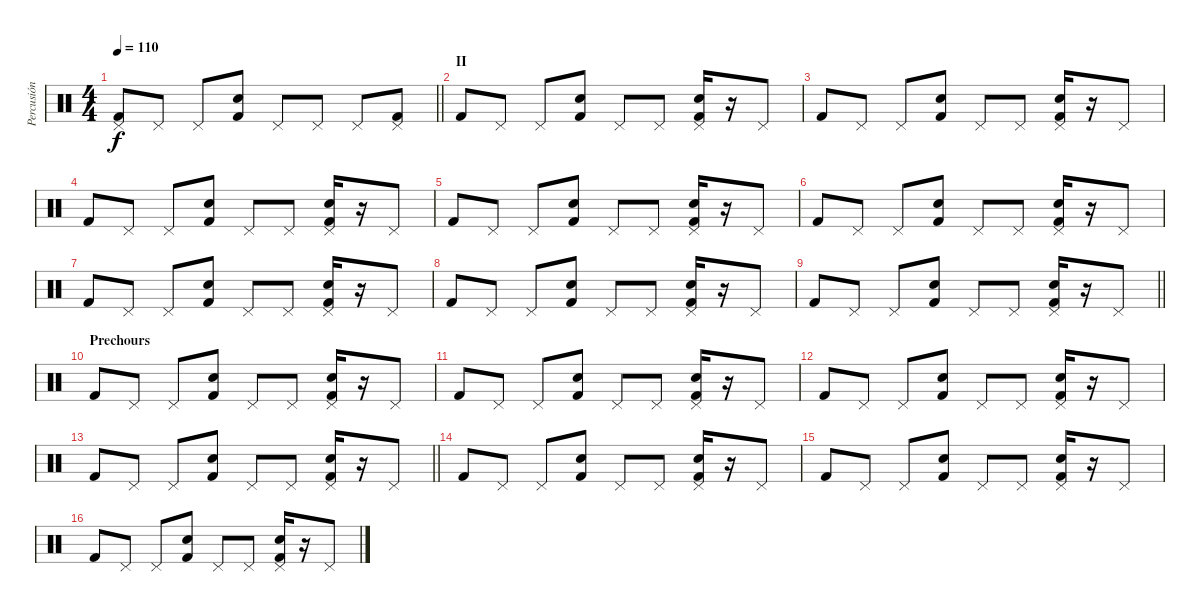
\track ("Percusión" "Percusión") {instrument percussion}
\staff {score}
\articulation defaults
\ts (4 4)
\tempo 110
\clef neutral
\barLineRight lightlight
\ks c
("Pedal Hi-Hat (hit)" "Kick (hit) 2").8{dy f} "Pedal Hi-Hat (hit)".8 "Pedal Hi-Hat (hit)".8 ("Electric Snare (hit)" "Kick (hit) 2").8 "Pedal Hi-Hat (hit)".8 "Pedal Hi-Hat (hit)".8 "Pedal Hi-Hat (hit)".8 ("Pedal Hi-Hat (hit)" "Kick (hit) 2").8 |
\section ("" "II")
"Kick (hit) 2".8 "Pedal Hi-Hat (hit)".8 "Pedal Hi-Hat (hit)".8 ("Electric Snare (hit)" "Kick (hit) 2").8 "Pedal Hi-Hat (hit)".8 "Pedal Hi-Hat (hit)".8 ("Hand Clap (hit)" "Pedal Hi-Hat (hit)" "Kick (hit) 2").16{bd 60} r.16 "Pedal Hi-Hat (hit)".8 |
"Kick (hit) 2".8 "Pedal Hi-Hat (hit)".8 "Pedal Hi-Hat (hit)".8 ("Electric Snare (hit)" "Kick (hit) 2").8 "Pedal Hi-Hat (hit)".8 "Pedal Hi-Hat (hit)".8 ("Hand Clap (hit)" "Pedal Hi-Hat (hit)" "Kick (hit) 2").16{bd 60} r.16 "Pedal Hi-Hat (hit)".8 |
"Kick (hit) 2".8 "Pedal Hi-Hat (hit)".8 "Pedal Hi-Hat (hit)".8 ("Electric Snare (hit)" "Kick (hit) 2").8 "Pedal Hi-Hat (hit)".8 "Pedal Hi-Hat (hit)".8 ("Hand Clap (hit)" "Pedal Hi-Hat (hit)" "Kick (hit) 2").16{bd 60} r.16 "Pedal Hi-Hat (hit)".8 |
"Kick (hit) 2".8 "Pedal Hi-Hat (hit)".8 "Pedal Hi-Hat (hit)".8 ("Electric Snare (hit)" "Kick (hit) 2").8 "Pedal Hi-Hat (hit)".8 "Pedal Hi-Hat (hit)".8 ("Hand Clap (hit)" "Pedal Hi-Hat (hit)" "Kick (hit) 2").16{bd 60} r.16 "Pedal Hi-Hat (hit)".8 |
"Kick (hit) 2".8 "Pedal Hi-Hat (hit)".8 "Pedal Hi-Hat (hit)".8 ("Electric Snare (hit)" "Kick (hit) 2").8 "Pedal Hi-Hat (hit)".8 "Pedal Hi-Hat (hit)".8 ("Hand Clap (hit)" "Pedal Hi-Hat (hit)" "Kick (hit) 2").16{bd 60} r.16 "Pedal Hi-Hat (hit)".8 |
"Kick (hit) 2".8 "Pedal Hi-Hat (hit)".8 "Pedal Hi-Hat (hit)".8 ("Electric Snare (hit)" "Kick (hit) 2").8 "Pedal Hi-Hat (hit)".8 "Pedal Hi-Hat (hit)".8 ("Hand Clap (hit)" "Pedal Hi-Hat (hit)" "Kick (hit) 2").16{bd 60} r.16 "Pedal Hi-Hat (hit)".8 |
"Kick (hit) 2".8 "Pedal Hi-Hat (hit)".8 "Pedal Hi-Hat (hit)".8 ("Electric Snare (hit)" "Kick (hit) 2").8 "Pedal Hi-Hat (hit)".8 "Pedal Hi-Hat (hit)".8 ("Hand Clap (hit)" "Pedal Hi-Hat (hit)" "Kick (hit) 2").16{bd 60} r.16 "Pedal Hi-Hat (hit)".8 |
\barLineRight lightlight "Kick (hit) 2".8 "Pedal Hi-Hat (hit)".8 "Pedal Hi-Hat (hit)".8
("Electric Snare (hit)" "Kick (hit) 2").8 "Pedal Hi-Hat (hit)".8 "Pedal Hi-Hat (hit)".8 ("Hand Clap (hit)" "Pedal Hi-Hat (hit)" "Kick (hit) 2").16{bd 60} r.16 "Pedal Hi-Hat (hit)".8 |
\section ("" "Prechours")
"Kick (hit) 2".8 "Pedal Hi-Hat (hit)".8 "Pedal Hi-Hat (hit)".8 ("Electric Snare (hit)" "Kick (hit) 2").8 "Pedal Hi-Hat (hit)".8 "Pedal Hi-Hat (hit)".8 ("Hand Clap (hit)" "Pedal Hi-Hat (hit)" "Kick (hit) 2").16{bd 60} r.16 "Pedal Hi-Hat (hit)".8 |
"Kick (hit) 2".8 "Pedal Hi-Hat (hit)".8 "Pedal Hi-Hat (hit)".8 ("Electric Snare (hit)" "Kick (hit) 2").8 "Pedal Hi-Hat (hit)".8 "Pedal Hi-Hat (hit)".8 ("Hand Clap (hit)" "Pedal Hi-Hat (hit)" "Kick (hit) 2").16{bd 60} r.16 "Pedal Hi-Hat (hit)".8 |
"Kick (hit) 2".8 "Pedal Hi-Hat (hit)".8 "Pedal Hi-Hat (hit)".8 ("Electric Snare (hit)" "Kick (hit) 2").8 "Pedal Hi-Hat (hit)".8 "Pedal Hi-Hat (hit)".8 ("Hand Clap (hit)" "Pedal Hi-Hat (hit)" "Kick (hit) 2").16{bd 60} r.16 "Pedal Hi-Hat (hit)".8 |
\barLineRight lightlight "Kick (hit) 2".8 "Pedal Hi-Hat (hit)".8 "Pedal Hi-Hat (hit)".8
("Electric Snare (hit)" "Kick (hit) 2").8 "Pedal Hi-Hat (hit)".8 "Pedal Hi-Hat (hit)".8 ("Hand Clap (hit)" "Pedal Hi-Hat (hit)" "Kick (hit) 2").16{bd 60} r.16 "Pedal Hi-Hat (hit)".8 |
"Kick (hit) 2".8 "Pedal Hi-Hat (hit)".8 "Pedal Hi-Hat (hit)".8 ("Electric Snare (hit)" "Kick (hit) 2").8 "Pedal Hi-Hat (hit)".8 "Pedal Hi-Hat (hit)".8 ("Hand Clap (hit)" "Pedal Hi-Hat (hit)" "Kick (hit) 2").16{bd 60} r.16 "Pedal Hi-Hat (hit)".8 |
"Kick (hit) 2".8 "Pedal Hi-Hat (hit)".8 "Pedal Hi-Hat (hit)".8 ("Electric Snare (hit)" "Kick (hit) 2").8 "Pedal Hi-Hat (hit)".8 "Pedal Hi-Hat (hit)".8 ("Hand Clap (hit)" "Pedal Hi-Hat (hit)" "Kick (hit) 2").16{bd 60} r.16 "Pedal Hi-Hat (hit)".8 |
"Kick (hit) 2".8 "Pedal Hi-Hat (hit)".8 "Pedal Hi-Hat (hit)".8 ("Electric Snare (hit)" "Kick (hit) 2").8 "Pedal Hi-Hat (hit)".8 "Pedal Hi-Hat (hit)".8 ("Hand Clap (hit)" "Pedal Hi-Hat (hit)" "Kick (hit) 2").16{bd 60} r.16 "Pedal Hi-Hat (hit)".8
